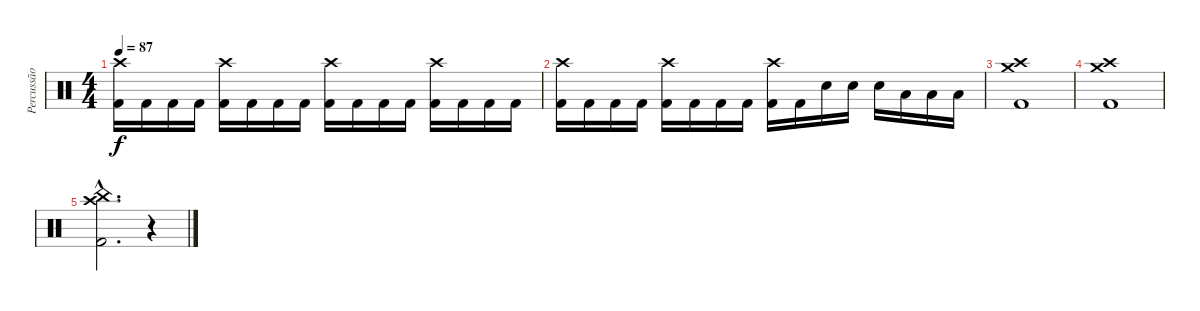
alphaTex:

\track ("Percussão" "Percussão") {instrument percussion}
\staff {score}
\articulation defaults
\ts (4 4)
\tempo 87
\clef neutral
\ks c
("Kick (hit) 2" "Crash high (hit)").16{dy f} "Kick (hit) 2".16 "Kick (hit) 2".16 "Kick (hit) 2".16 ("Kick (hit) 2" "Crash high (hit)").16 "Kick (hit) 2".16 "Kick (hit) 2".16 "Kick (hit) 2".16 ("Kick (hit) 2" "Crash high (hit)").16 "Kick (hit) 2".16 "Kick (hit) 2".16 "Kick (hit) 2".16 ("Kick (hit) 2" "Crash high (hit)").16 "Kick (hit) 2".16 "Kick (hit) 2".16 "Kick (hit) 2".16 |
("Kick (hit) 2" "Crash high (hit)").16 "Kick (hit) 2".16 "Kick (hit) 2".16 "Kick (hit) 2".16 ("Kick (hit) 2" "Crash high (hit)").16 "Kick (hit) 2".16 "Kick (hit) 2".16 "Kick (hit) 2".16 ("Kick (hit) 2" "Crash high (hit)").16 "Kick (hit) 2".16 "Electric Snare (hit)".16 "Electric Snare (hit)".16 "Electric Snare (hit)".16 "Low Floor Tom (hit)".16 "Low Floor Tom (hit)".16 "Low Floor Tom (hit)".16 |
("Crash high (hit)" "Crash medium (hit)" "Kick (hit) 2").1 |
("Crash high (hit)" "Crash medium (hit)" "Kick (hit) 2").1 |
("China (hit)"{hac} "Crash high (hit)"{hac} "Kick (hit) 2"{hac}).2{d} r.4
